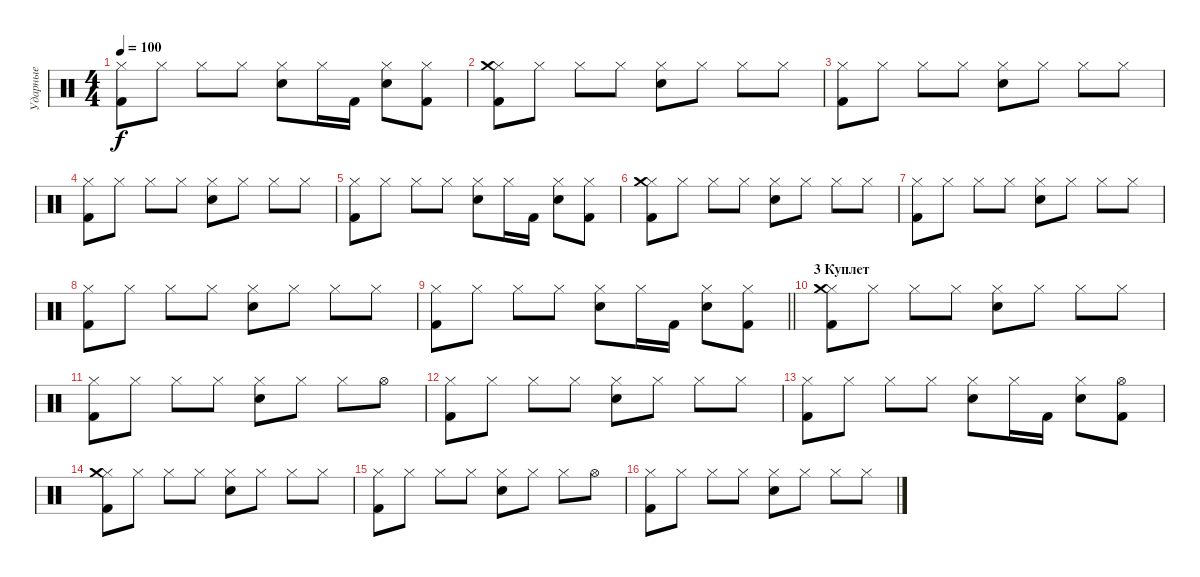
\track ("Ударные" "Ударные") {instrument percussion}
\staff {score}
\articulation defaults
\ts (4 4)
\tempo 100
\clef neutral
\ks c
("Hi-Hat (closed)" "Kick (hit) 2").8{dy f} "Hi-Hat (closed)".8 "Hi-Hat (closed)".8 "Hi-Hat (closed)".8 ("Hi-Hat (closed)" "Snare (hit) 2").8 "Hi-Hat (closed)".16 "Kick (hit) 2".16 ("Hi-Hat (closed)" "Snare (hit) 2").8 ("Hi-Hat (closed)" "Kick (hit) 2").8 |
("Hi-Hat (closed)" "Kick (hit) 2" "Crash medium (hit)").8 "Hi-Hat (closed)".8 "Hi-Hat (closed)".8 "Hi-Hat (closed)".8 ("Hi-Hat (closed)" "Snare (hit) 2").8 "Hi-Hat (closed)".8 "Hi-Hat (closed)".8 "Hi-Hat (closed)".8 |
("Hi-Hat (closed)" "Kick (hit) 2").8 "Hi-Hat (closed)".8 "Hi-Hat (closed)".8 "Hi-Hat (closed)".8 ("Hi-Hat (closed)" "Snare (hit) 2").8 "Hi-Hat (closed)".8 "Hi-Hat (closed)".8 "Hi-Hat (closed)".8 |
("Hi-Hat (closed)" "Kick (hit) 2").8 "Hi-Hat (closed)".8 "Hi-Hat (closed)".8 "Hi-Hat (closed)".8 ("Hi-Hat (closed)" "Snare (hit) 2").8 "Hi-Hat (closed)".8 "Hi-Hat (closed)".8 "Hi-Hat (closed)".8 |
("Hi-Hat (closed)" "Kick (hit) 2").8 "Hi-Hat (closed)".8 "Hi-Hat (closed)".8 "Hi-Hat (closed)".8 ("Hi-Hat (closed)" "Snare (hit) 2").8 "Hi-Hat (closed)".16 "Kick (hit) 2".16 ("Hi-Hat (closed)" "Snare (hit) 2").8 ("Hi-Hat (closed)" "Kick (hit) 2").8 |
("Hi-Hat (closed)" "Kick (hit) 2" "Crash medium (hit)").8 "Hi-Hat (closed)".8 "Hi-Hat (closed)".8 "Hi-Hat (closed)".8 ("Hi-Hat (closed)" "Snare (hit) 2").8 "Hi-Hat (closed)".8 "Hi-Hat (closed)".8 "Hi-Hat (closed)".8 |
("Hi-Hat (closed)" "Kick (hit) 2").8 "Hi-Hat (closed)".8 "Hi-Hat (closed)".8 "Hi-Hat (closed)".8 ("Hi-Hat (closed)" "Snare (hit) 2").8 "Hi-Hat (closed)".8 "Hi-Hat (closed)".8 "Hi-Hat (closed)".8 |
("Hi-Hat (closed)" "Kick (hit) 2").8 "Hi-Hat (closed)".8 "Hi-Hat (closed)".8 "Hi-Hat (closed)".8 ("Hi-Hat (closed)" "Snare (hit) 2").8 "Hi-Hat (closed)".8 "Hi-Hat (closed)".8 "Hi-Hat (closed)".8 |
\barLineRight lightlight
("Hi-Hat (closed)" "Kick (hit) 2").8 "Hi-Hat (closed)".8 "Hi-Hat (closed)".8 "Hi-Hat (closed)".8 ("Hi-Hat (closed)" "Snare (hit) 2").8 "Hi-Hat (closed)".16 "Kick (hit) 2".16 ("Hi-Hat (closed)" "Snare (hit) 2").8 ("Hi-Hat (closed)" "Kick (hit) 2").8 |
\section ("" "3 Куплет")
("Hi-Hat (closed)" "Kick (hit) 2" "Crash medium (hit)").8 "Hi-Hat (closed)".8 "Hi-Hat (closed)".8 "Hi-Hat (closed)".8 ("Hi-Hat (closed)" "Snare (hit) 2").8 "Hi-Hat (closed)".8 "Hi-Hat (closed)".8 "Hi-Hat (closed)".8 |
("Hi-Hat (closed)" "Kick (hit) 2").8 "Hi-Hat (closed)".8 "Hi-Hat (closed)".8 "Hi-Hat (closed)".8 ("Hi-Hat (closed)" "Snare (hit) 2").8 "Hi-Hat (closed)".8 "Hi-Hat (closed)".8 "Hi-Hat (open)".8 |
("Hi-Hat (closed)" "Kick (hit) 2").8 "Hi-Hat (closed)".8 "Hi-Hat (closed)".8 "Hi-Hat (closed)".8 ("Hi-Hat (closed)" "Snare (hit) 2").8 "Hi-Hat (closed)".8 "Hi-Hat (closed)".8 "Hi-Hat (closed)".8 |
("Hi-Hat (closed)" "Kick (hit) 2").8 "Hi-Hat (closed)".8 "Hi-Hat (closed)".8 "Hi-Hat (closed)".8 ("Hi-Hat (closed)" "Snare (hit) 2").8 "Hi-Hat (closed)".16 "Kick (hit) 2".16 ("Hi-Hat (closed)" "Snare (hit) 2").8 ("Hi-Hat (open)" "Kick (hit) 2").8 |
("Hi-Hat (closed)" "Kick (hit) 2" "Crash medium (hit)").8 "Hi-Hat (closed)".8 "Hi-Hat (closed)".8 "Hi-Hat (closed)".8 ("Hi-Hat (closed)" "Snare (hit) 2").8 "Hi-Hat (closed)".8 "Hi-Hat (closed)".8 "Hi-Hat (closed)".8 |
("Hi-Hat (closed)" "Kick (hit) 2").8 "Hi-Hat (closed)".8 "Hi-Hat (closed)".8 "Hi-Hat (closed)".8 ("Hi-Hat (closed)" "Snare (hit) 2").8 "Hi-Hat (closed)".8 "Hi-Hat (closed)".8 "Hi-Hat (open)".8 |
("Hi-Hat (closed)" "Kick (hit) 2").8 "Hi-Hat (closed)".8 "Hi-Hat (closed)".8 "Hi-Hat (closed)".8 ("Hi-Hat (closed)" "Snare (hit) 2").8 "Hi-Hat (closed)".8 "Hi-Hat (closed)".8 "Hi-Hat (closed)".8
